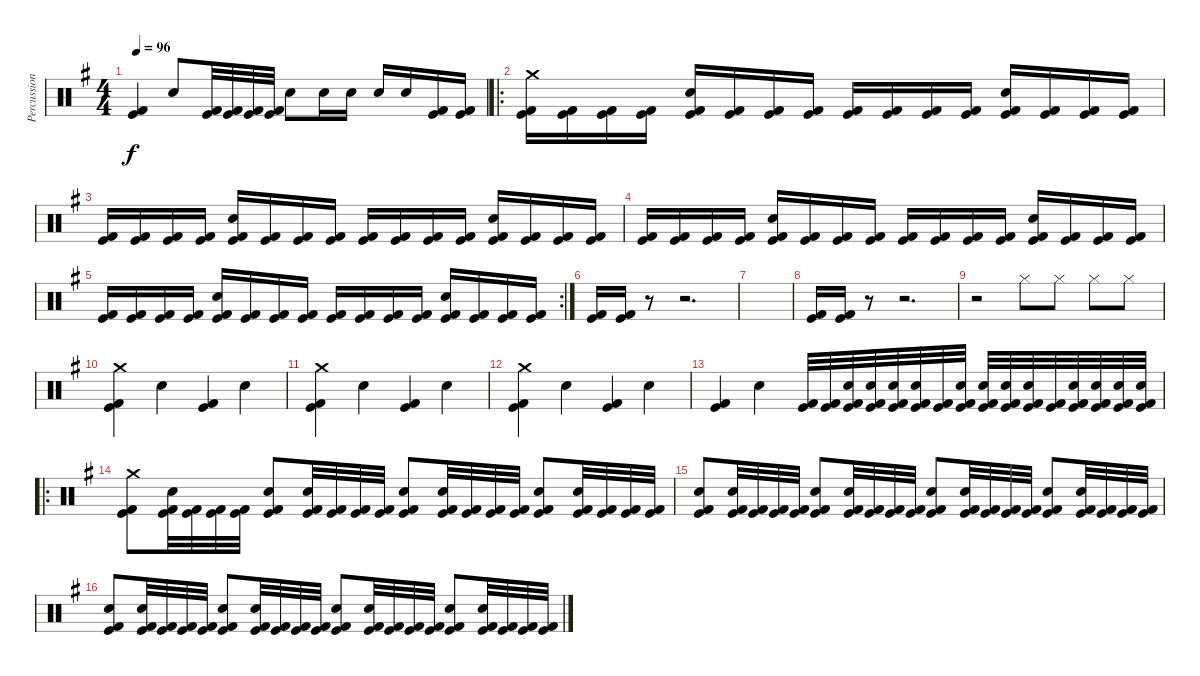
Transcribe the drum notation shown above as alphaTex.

\track ("Percussion" "Percussion") {instrument percussion}
\staff {score}
\articulation defaults
\ts (4 4)
\tempo 96
\clef neutral
\ks g
("Kick (hit) 2" "Kick (hit)").4{dy f} "Electric Snare (hit)".8 ("Kick (hit) 2" "Kick (hit)").32 ("Kick (hit) 2" "Kick (hit)").32 ("Kick (hit) 2" "Kick (hit)").32 ("Kick (hit) 2" "Kick (hit)").32 "Electric Snare (hit)".8 "Electric Snare (hit)".16 "Electric Snare (hit)".16 "Electric Snare (hit)".16 "Electric Snare (hit)".16 ("Kick (hit) 2" "Kick (hit)").16 ("Kick (hit) 2" "Kick (hit)").16 |
\ro
("Crash medium (hit)" "Kick (hit)" "Kick (hit) 2").16 ("Kick (hit)" "Kick (hit) 2").16 ("Kick (hit)" "Kick (hit) 2").16 ("Kick (hit)" "Kick (hit) 2").16 ("Electric Snare (hit)" "Kick (hit)" "Kick (hit) 2").16 ("Kick (hit)" "Kick (hit) 2").16 ("Kick (hit)" "Kick (hit) 2").16 ("Kick (hit)" "Kick (hit) 2").16 ("Kick (hit)" "Kick (hit) 2").16 ("Kick (hit)" "Kick (hit) 2").16 ("Kick (hit)" "Kick (hit) 2").16 ("Kick (hit)" "Kick (hit) 2").16 ("Electric Snare (hit)" "Kick (hit)" "Kick (hit) 2").16 ("Kick (hit)" "Kick (hit) 2").16 ("Kick (hit)" "Kick (hit) 2").16 ("Kick (hit)" "Kick (hit) 2").16 |
("Kick (hit)" "Kick (hit) 2").16 ("Kick (hit)" "Kick (hit) 2").16 ("Kick (hit)" "Kick (hit) 2").16 ("Kick (hit)" "Kick (hit) 2").16 ("Electric Snare (hit)" "Kick (hit)" "Kick (hit) 2").16 ("Kick (hit)" "Kick (hit) 2").16 ("Kick (hit)" "Kick (hit) 2").16 ("Kick (hit)" "Kick (hit) 2").16 ("Kick (hit)" "Kick (hit) 2").16 ("Kick (hit)" "Kick (hit) 2").16 ("Kick (hit)" "Kick (hit) 2").16 ("Kick (hit)" "Kick (hit) 2").16 ("Electric Snare (hit)" "Kick (hit)" "Kick (hit) 2").16 ("Kick (hit)" "Kick (hit) 2").16 ("Kick (hit)" "Kick (hit) 2").16 ("Kick (hit)" "Kick (hit) 2").16 |
("Kick (hit)" "Kick (hit) 2").16 ("Kick (hit)" "Kick (hit) 2").16 ("Kick (hit)" "Kick (hit) 2").16 ("Kick (hit)" "Kick (hit) 2").16 ("Electric Snare (hit)" "Kick (hit)" "Kick (hit) 2").16 ("Kick (hit)" "Kick (hit) 2").16 ("Kick (hit)" "Kick (hit) 2").16 ("Kick (hit)" "Kick (hit) 2").16 ("Kick (hit)" "Kick (hit) 2").16 ("Kick (hit)" "Kick (hit) 2").16 ("Kick (hit)" "Kick (hit) 2").16 ("Kick (hit)" "Kick (hit) 2").16 ("Electric Snare (hit)" "Kick (hit)" "Kick (hit) 2").16 ("Kick (hit)" "Kick (hit) 2").16 ("Kick (hit)" "Kick (hit) 2").16 ("Kick (hit)" "Kick (hit) 2").16 |
\rc 2
("Kick (hit)" "Kick (hit) 2").16 ("Kick (hit)" "Kick (hit) 2").16 ("Kick (hit)" "Kick (hit) 2").16 ("Kick (hit)" "Kick (hit) 2").16 ("Electric Snare (hit)" "Kick (hit)" "Kick (hit) 2").16 ("Kick (hit)" "Kick (hit) 2").16 ("Kick (hit)" "Kick (hit) 2").16 ("Kick (hit)" "Kick (hit) 2").16 ("Kick (hit)" "Kick (hit) 2").16 ("Kick (hit)" "Kick (hit) 2").16 ("Kick (hit)" "Kick (hit) 2").16 ("Kick (hit)" "Kick (hit) 2").16 ("Electric Snare (hit)" "Kick (hit)" "Kick (hit) 2").16 ("Kick (hit)" "Kick (hit) 2").16 ("Kick (hit)" "Kick (hit) 2").16 ("Kick (hit)" "Kick (hit) 2").16 |
("Kick (hit)" "Kick (hit) 2").16 ("Kick (hit)" "Kick (hit) 2").16 r.8 r.2{d} |
|
("Kick (hit)" "Kick (hit) 2").16 ("Kick (hit)" "Kick (hit) 2").16 r.8 r.2{d} |
r.2 "Hi-Hat (closed)".8 "Hi-Hat (closed)".8 "Hi-Hat (closed)".8 "Hi-Hat (closed)".8 |
("Crash medium (hit)" "Kick (hit) 2" "Kick (hit)").4 "Electric Snare (hit)".4 ("Kick (hit) 2" "Kick (hit)").4 "Electric Snare (hit)".4 |
("Crash medium (hit)" "Kick (hit) 2" "Kick (hit)").4 "Electric Snare (hit)".4 ("Kick (hit) 2" "Kick (hit)").4 "Electric Snare (hit)".4 |
("Crash medium (hit)" "Kick (hit) 2" "Kick (hit)").4 "Electric Snare (hit)".4 ("Kick (hit) 2" "Kick (hit)").4 "Electric Snare (hit)".4 |
("Kick (hit) 2" "Kick (hit)").4 "Electric Snare (hit)".4 ("Kick (hit) 2" "Kick (hit)").32 ("Kick (hit) 2" "Kick (hit)").32 ("Electric Snare (hit)" "Kick (hit) 2" "Kick (hit)").32 ("Electric Snare (hit)" "Kick (hit) 2" "Kick (hit)").32 ("Electric Snare (hit)" "Kick (hit) 2" "Kick (hit)").32 ("Electric Snare (hit)" "Kick (hit) 2" "Kick (hit)").32 ("Kick (hit) 2" "Kick (hit)").32 ("Electric Snare (hit)" "Kick (hit) 2" "Kick (hit)").32 ("Electric Snare (hit)" "Kick (hit) 2" "Kick (hit)").32 ("Electric Snare (hit)" "Kick (hit) 2" "Kick (hit)").32 ("Electric Snare (hit)" "Kick (hit) 2" "Kick (hit)").32 ("Kick (hit) 2" "Kick (hit)").32 ("Electric Snare (hit)" "Kick (hit) 2" "Kick (hit)").32 ("Electric Snare (hit)" "Kick (hit) 2" "Kick (hit)").32 ("Electric Snare (hit)" "Kick (hit) 2" "Kick (hit)").32 ("Electric Snare (hit)" "Kick (hit) 2" "Kick (hit)").32 |
\ro
("Crash medium (hit)" "Kick (hit) 2" "Kick (hit)").8 ("Electric Snare (hit)" "Kick (hit) 2" "Kick (hit)").32 ("Kick (hit) 2" "Kick (hit)").32 ("Kick (hit) 2" "Kick (hit)").32 ("Kick (hit) 2" "Kick (hit)").32 ("Electric Snare (hit)" "Kick (hit) 2" "Kick (hit)").8 ("Electric Snare (hit)" "Kick (hit) 2" "Kick (hit)").32 ("Kick (hit) 2" "Kick (hit)").32 ("Kick (hit) 2" "Kick (hit)").32 ("Kick (hit) 2" "Kick (hit)").32 ("Electric Snare (hit)" "Kick (hit) 2" "Kick (hit)").8 ("Electric Snare (hit)" "Kick (hit) 2" "Kick (hit)").32 ("Kick (hit) 2" "Kick (hit)").32 ("Kick (hit) 2" "Kick (hit)").32 ("Kick (hit) 2" "Kick (hit)").32 ("Electric Snare (hit)" "Kick (hit) 2" "Kick (hit)").8 ("Electric Snare (hit)" "Kick (hit) 2" "Kick (hit)").32 ("Kick (hit) 2" "Kick (hit)").32 ("Kick (hit) 2" "Kick (hit)").32 ("Kick (hit) 2" "Kick (hit)").32 |
("Electric Snare (hit)" "Kick (hit) 2" "Kick (hit)").8 ("Electric Snare (hit)" "Kick (hit) 2" "Kick (hit)").32 ("Kick (hit) 2" "Kick (hit)").32 ("Kick (hit) 2" "Kick (hit)").32 ("Kick (hit) 2" "Kick (hit)").32 ("Electric Snare (hit)" "Kick (hit) 2" "Kick (hit)").8 ("Electric Snare (hit)" "Kick (hit) 2" "Kick (hit)").32 ("Kick (hit) 2" "Kick (hit)").32 ("Kick (hit) 2" "Kick (hit)").32 ("Kick (hit) 2" "Kick (hit)").32 ("Electric Snare (hit)" "Kick (hit) 2" "Kick (hit)").8 ("Electric Snare (hit)" "Kick (hit) 2" "Kick (hit)").32 ("Kick (hit) 2" "Kick (hit)").32 ("Kick (hit) 2" "Kick (hit)").32 ("Kick (hit) 2" "Kick (hit)").32 ("Electric Snare (hit)" "Kick (hit) 2" "Kick (hit)").8 ("Electric Snare (hit)" "Kick (hit) 2" "Kick (hit)").32 ("Kick (hit) 2" "Kick (hit)").32 ("Kick (hit) 2" "Kick (hit)").32 ("Kick (hit) 2" "Kick (hit)").32 |
("Electric Snare (hit)" "Kick (hit) 2" "Kick (hit)").8 ("Electric Snare (hit)" "Kick (hit) 2" "Kick (hit)").32 ("Kick (hit) 2" "Kick (hit)").32 ("Kick (hit) 2" "Kick (hit)").32 ("Kick (hit) 2" "Kick (hit)").32 ("Electric Snare (hit)" "Kick (hit) 2" "Kick (hit)").8 ("Electric Snare (hit)" "Kick (hit) 2" "Kick (hit)").32 ("Kick (hit) 2" "Kick (hit)").32 ("Kick (hit) 2" "Kick (hit)").32 ("Kick (hit) 2" "Kick (hit)").32 ("Electric Snare (hit)" "Kick (hit) 2" "Kick (hit)").8 ("Electric Snare (hit)" "Kick (hit) 2" "Kick (hit)").32 ("Kick (hit) 2" "Kick (hit)").32 ("Kick (hit) 2" "Kick (hit)").32 ("Kick (hit) 2" "Kick (hit)").32 ("Electric Snare (hit)" "Kick (hit) 2" "Kick (hit)").8 ("Electric Snare (hit)" "Kick (hit) 2" "Kick (hit)").32 ("Kick (hit) 2" "Kick (hit)").32 ("Kick (hit) 2" "Kick (hit)").32 ("Kick (hit) 2" "Kick (hit)").32
